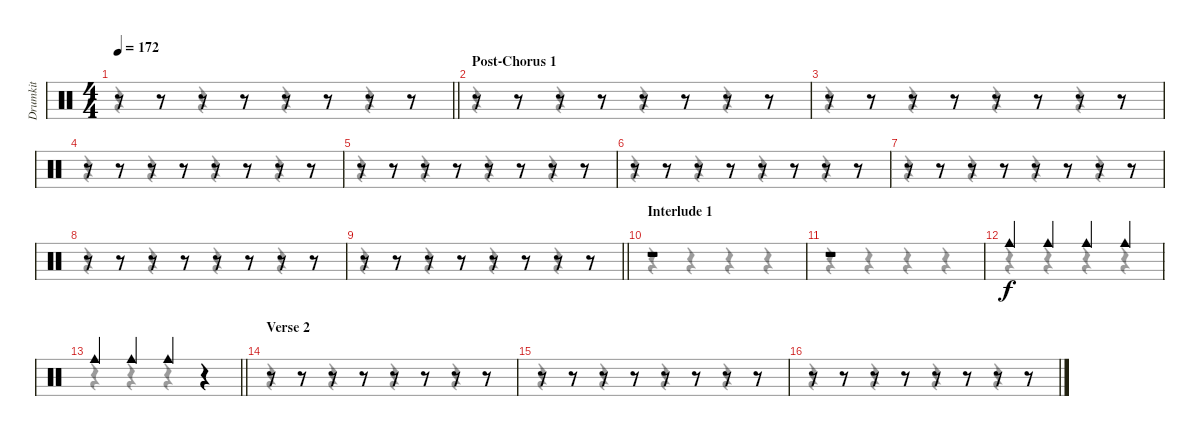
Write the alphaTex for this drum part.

\track ("Drumkit" "Drumkit") {instrument percussion}
\staff {score}
\articulation defaults
\voice
\ts (4 4)
\tempo 172
\clef neutral
\barLineRight lightlight
\ks c
r.8{dy f} r.8 r.8 r.8 r.8 r.8 r.8 r.8 |
\section ("" "Post-Chorus 1")
r.8 r.8 r.8 r.8 r.8 r.8 r.8 r.8 |
r.8 r.8 r.8 r.8 r.8 r.8 r.8 r.8 |
r.8 r.8 r.8 r.8 r.8 r.8 r.8 r.8 |
r.8 r.8 r.8 r.8 r.8 r.8 r.8 r.8 |
r.8 r.8 r.8 r.8 r.8 r.8 r.8 r.8 |
r.8 r.8 r.8 r.8 r.8 r.8 r.8 r.8 |
r.8 r.8 r.8 r.8 r.8 r.8 r.8 r.8 |
\barLineRight lightlight
r.8 r.8 r.8 r.8 r.8 r.8 r.8 r.8 |
\section ("" "Interlude 1")
r.1 |
r.1 |
"Cowbell medium (hit)".4 "Cowbell medium (hit)".4 "Cowbell medium (hit)".4 "Cowbell medium (hit)".4 |
\barLineRight lightlight "Cowbell medium (hit)".4 "Cowbell medium (hit)".4 "Cowbell medium (hit)".4
r.4 |
\section ("" "Verse 2")
r.8 r.8 r.8 r.8 r.8 r.8 r.8 r.8 |
r.8 r.8 r.8 r.8 r.8 r.8 r.8 r.8 |
r.8 r.8 r.8 r.8 r.8 r.8 r.8 r.8
\voice
\clef neutral
\ottava regular
\simile none
\barLineRight lightlight
\ks c
r.4{dy f} r.4 r.4 r.4 |
r.4 r.4 r.4 r.4 |
r.4 r.4 r.4 r.4 |
r.4 r.4 r.4 r.4 |
r.4 r.4 r.4 r.4 |
r.4 r.4 r.4 r.4 |
r.4 r.4 r.4 r.4 |
r.4 r.4 r.4 r.4 |
\barLineRight lightlight
r.4 r.4 r.4 r.4 |
r.4 r.4 r.4 r.4 |
r.4 r.4 r.4 r.4 |
r.4 r.4 r.4 r.4 |
\barLineRight lightlight
r.4 r.4 r.4 r.4 |
r.4 r.4 r.4 r.4 |
r.4 r.4 r.4 r.4 |
r.4 r.4 r.4 r.4
